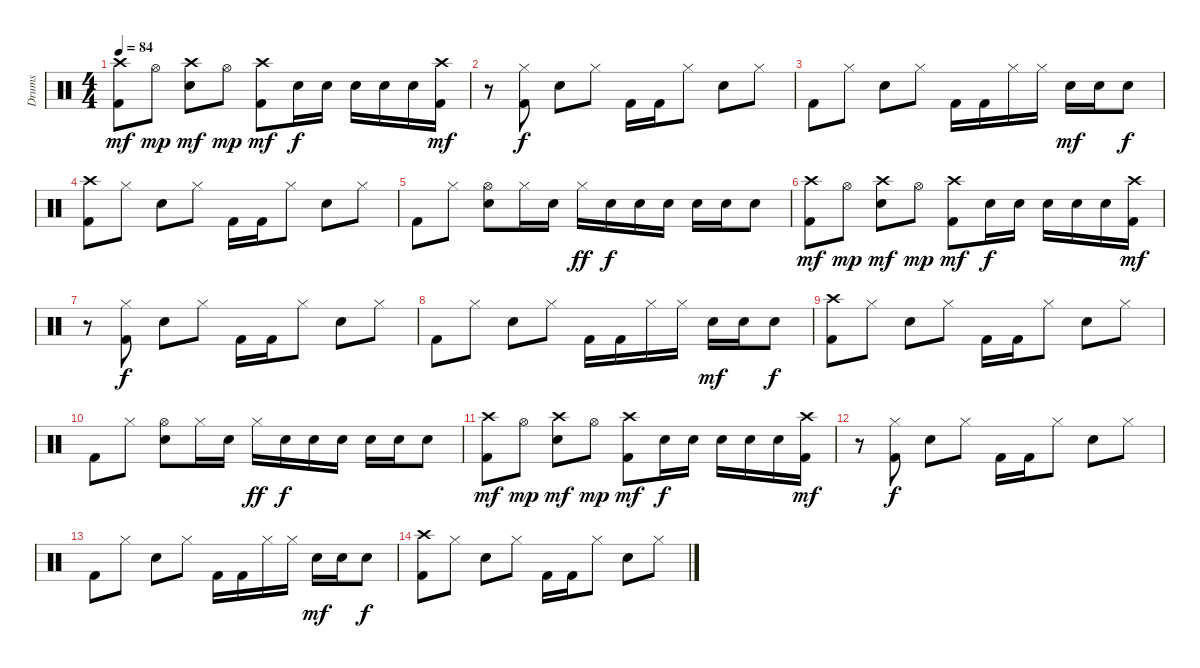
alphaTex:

\track ("Drums" "Drums") {instrument percussion}
\staff {score}
\articulation defaults
\ts (4 4)
\tempo 84
\clef neutral
\ks c
("Kick (hit) 2" "Crash high (hit)").8{dy mf} "Hi-Hat (open)".8{dy mp} ("Snare (hit) 2" "Crash high (hit)").8{dy mf} "Hi-Hat (open)".8{dy mp} ("Kick (hit) 2" "Crash high (hit)").8{dy mf} "Snare (hit) 2".16{dy f} "Snare (hit) 2".16 "Snare (hit) 2".16 "Snare (hit) 2".16 "Snare (hit) 2".16 ("Kick (hit) 2" "Crash high (hit)").16{dy mf} |
r.8 ("Kick (hit) 2" "Hi-Hat (closed)").8{dy f} "Snare (hit) 2".8 "Hi-Hat (closed)".8 "Kick (hit) 2".16 "Kick (hit) 2".16 "Hi-Hat (closed)".8 "Snare (hit) 2".8 "Hi-Hat (closed)".8 |
"Kick (hit) 2".8 "Hi-Hat (closed)".8 "Snare (hit) 2".8 "Hi-Hat (closed)".8 "Kick (hit) 2".16 "Kick (hit) 2".16 "Hi-Hat (closed)".16 "Hi-Hat (closed)".16 "Snare (hit) 2".16{dy mf} "Snare (hit) 2".16 "Snare (hit) 2".8{dy f} |
("Kick (hit) 2" "Crash high (hit)").8 "Hi-Hat (closed)".8 "Snare (hit) 2".8 "Hi-Hat (closed)".8 "Kick (hit) 2".16 "Kick (hit) 2".16 "Hi-Hat (closed)".8 "Snare (hit) 2".8 "Hi-Hat (closed)".8 |
"Kick (hit) 2".8 "Hi-Hat (closed)".8 ("Snare (hit) 2" "Hi-Hat (open)").8 "Hi-Hat (closed)".16 "Snare (hit) 2".16 "Hi-Hat (closed)".16{dy ff} "Snare (hit) 2".16{dy f} "Snare (hit) 2".16 "Snare (hit) 2".16 "Snare (hit) 2".16 "Snare (hit) 2".16 "Snare (hit) 2".8 |
("Kick (hit) 2" "Crash high (hit)").8{dy mf} "Hi-Hat (open)".8{dy mp} ("Snare (hit) 2" "Crash high (hit)").8{dy mf} "Hi-Hat (open)".8{dy mp} ("Kick (hit) 2" "Crash high (hit)").8{dy mf} "Snare (hit) 2".16{dy f} "Snare (hit) 2".16 "Snare (hit) 2".16 "Snare (hit) 2".16 "Snare (hit) 2".16 ("Kick (hit) 2" "Crash high (hit)").16{dy mf} |
r.8 ("Kick (hit) 2" "Hi-Hat (closed)").8{dy f} "Snare (hit) 2".8 "Hi-Hat (closed)".8 "Kick (hit) 2".16 "Kick (hit) 2".16 "Hi-Hat (closed)".8 "Snare (hit) 2".8 "Hi-Hat (closed)".8 |
"Kick (hit) 2".8 "Hi-Hat (closed)".8 "Snare (hit) 2".8 "Hi-Hat (closed)".8 "Kick (hit) 2".16 "Kick (hit) 2".16 "Hi-Hat (closed)".16 "Hi-Hat (closed)".16 "Snare (hit) 2".16{dy mf} "Snare (hit) 2".16 "Snare (hit) 2".8{dy f} |
("Kick (hit) 2" "Crash high (hit)").8 "Hi-Hat (closed)".8 "Snare (hit) 2".8 "Hi-Hat (closed)".8 "Kick (hit) 2".16 "Kick (hit) 2".16 "Hi-Hat (closed)".8 "Snare (hit) 2".8 "Hi-Hat (closed)".8 |
"Kick (hit) 2".8 "Hi-Hat (closed)".8 ("Snare (hit) 2" "Hi-Hat (open)").8 "Hi-Hat (closed)".16 "Snare (hit) 2".16 "Hi-Hat (closed)".16{dy ff} "Snare (hit) 2".16{dy f} "Snare (hit) 2".16 "Snare (hit) 2".16 "Snare (hit) 2".16 "Snare (hit) 2".16 "Snare (hit) 2".8 |
("Kick (hit) 2" "Crash high (hit)").8{dy mf} "Hi-Hat (open)".8{dy mp} ("Snare (hit) 2" "Crash high (hit)").8{dy mf} "Hi-Hat (open)".8{dy mp} ("Kick (hit) 2" "Crash high (hit)").8{dy mf} "Snare (hit) 2".16{dy f} "Snare (hit) 2".16 "Snare (hit) 2".16 "Snare (hit) 2".16 "Snare (hit) 2".16 ("Kick (hit) 2" "Crash high (hit)").16{dy mf} |
r.8 ("Kick (hit) 2" "Hi-Hat (closed)").8{dy f} "Snare (hit) 2".8 "Hi-Hat (closed)".8 "Kick (hit) 2".16 "Kick (hit) 2".16 "Hi-Hat (closed)".8 "Snare (hit) 2".8 "Hi-Hat (closed)".8 |
"Kick (hit) 2".8 "Hi-Hat (closed)".8 "Snare (hit) 2".8 "Hi-Hat (closed)".8 "Kick (hit) 2".16 "Kick (hit) 2".16 "Hi-Hat (closed)".16 "Hi-Hat (closed)".16 "Snare (hit) 2".16{dy mf} "Snare (hit) 2".16 "Snare (hit) 2".8{dy f} |
("Kick (hit) 2" "Crash high (hit)").8 "Hi-Hat (closed)".8 "Snare (hit) 2".8 "Hi-Hat (closed)".8 "Kick (hit) 2".16 "Kick (hit) 2".16 "Hi-Hat (closed)".8 "Snare (hit) 2".8 "Hi-Hat (closed)".8
